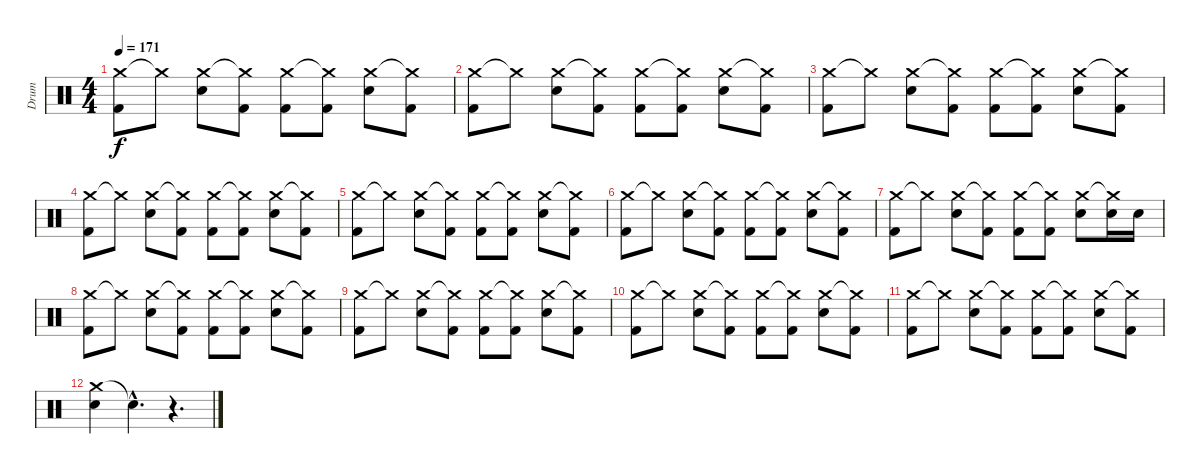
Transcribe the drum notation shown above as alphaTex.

\track ("Drum" "Drum") {instrument percussion}
\staff {score}
\articulation defaults
\ts (4 4)
\tempo 171
\clef neutral
\ks c
("Crash medium (hit)" "Kick (hit) 2").8{dy f} "Crash medium (hit)"{t}.8 ("Crash medium (hit)" "Electric Snare (hit)").8 ("Crash medium (hit)"{t} "Kick (hit) 2").8 ("Crash medium (hit)" "Kick (hit) 2").8 ("Crash medium (hit)"{t} "Kick (hit) 2").8 ("Crash medium (hit)" "Electric Snare (hit)").8 ("Crash medium (hit)"{t} "Kick (hit) 2").8 |
("Crash medium (hit)" "Kick (hit) 2").8 "Crash medium (hit)"{t}.8 ("Crash medium (hit)" "Electric Snare (hit)").8 ("Crash medium (hit)"{t} "Kick (hit) 2").8 ("Crash medium (hit)" "Kick (hit) 2").8 ("Crash medium (hit)"{t} "Kick (hit) 2").8 ("Crash medium (hit)" "Electric Snare (hit)").8 ("Crash medium (hit)"{t} "Kick (hit) 2").8 |
("Crash medium (hit)" "Kick (hit) 2").8 "Crash medium (hit)"{t}.8 ("Crash medium (hit)" "Electric Snare (hit)").8 ("Crash medium (hit)"{t} "Kick (hit) 2").8 ("Crash medium (hit)" "Kick (hit) 2").8 ("Crash medium (hit)"{t} "Kick (hit) 2").8 ("Crash medium (hit)" "Electric Snare (hit)").8 ("Crash medium (hit)"{t} "Kick (hit) 2").8 |
("Crash medium (hit)" "Kick (hit) 2").8 "Crash medium (hit)"{t}.8 ("Crash medium (hit)" "Electric Snare (hit)").8 ("Crash medium (hit)"{t} "Kick (hit) 2").8 ("Crash medium (hit)" "Kick (hit) 2").8 ("Crash medium (hit)"{t} "Kick (hit) 2").8 ("Crash medium (hit)" "Electric Snare (hit)").8 ("Crash medium (hit)"{t} "Kick (hit) 2").8 |
("Crash medium (hit)" "Kick (hit) 2").8 "Crash medium (hit)"{t}.8 ("Crash medium (hit)" "Electric Snare (hit)").8 ("Crash medium (hit)"{t} "Kick (hit) 2").8 ("Crash medium (hit)" "Kick (hit) 2").8 ("Crash medium (hit)"{t} "Kick (hit) 2").8 ("Crash medium (hit)" "Electric Snare (hit)").8 ("Crash medium (hit)"{t} "Kick (hit) 2").8 |
("Crash medium (hit)" "Kick (hit) 2").8 "Crash medium (hit)"{t}.8 ("Crash medium (hit)" "Electric Snare (hit)").8 ("Crash medium (hit)"{t} "Kick (hit) 2").8 ("Crash medium (hit)" "Kick (hit) 2").8 ("Crash medium (hit)"{t} "Kick (hit) 2").8 ("Crash medium (hit)" "Electric Snare (hit)").8 ("Crash medium (hit)"{t} "Kick (hit) 2").8 |
("Crash medium (hit)" "Kick (hit) 2").8 "Crash medium (hit)"{t}.8 ("Crash medium (hit)" "Electric Snare (hit)").8 ("Crash medium (hit)"{t} "Kick (hit) 2").8 ("Crash medium (hit)" "Kick (hit) 2").8 ("Crash medium (hit)"{t} "Kick (hit) 2").8 ("Crash medium (hit)" "Electric Snare (hit)").8 ("Crash medium (hit)"{t} "Electric Snare (hit)").16 "Electric Snare (hit)".16 |
("Crash medium (hit)" "Kick (hit) 2").8 "Crash medium (hit)"{t}.8 ("Crash medium (hit)" "Electric Snare (hit)").8 ("Crash medium (hit)"{t} "Kick (hit) 2").8 ("Crash medium (hit)" "Kick (hit) 2").8 ("Crash medium (hit)"{t} "Kick (hit) 2").8 ("Crash medium (hit)" "Electric Snare (hit)").8 ("Crash medium (hit)"{t} "Kick (hit) 2").8 |
("Crash medium (hit)" "Kick (hit) 2").8 "Crash medium (hit)"{t}.8 ("Crash medium (hit)" "Electric Snare (hit)").8 ("Crash medium (hit)"{t} "Kick (hit) 2").8 ("Crash medium (hit)" "Kick (hit) 2").8 ("Crash medium (hit)"{t} "Kick (hit) 2").8 ("Crash medium (hit)" "Electric Snare (hit)").8 ("Crash medium (hit)"{t} "Kick (hit) 2").8 |
("Crash medium (hit)" "Kick (hit) 2").8 "Crash medium (hit)"{t}.8 ("Crash medium (hit)" "Electric Snare (hit)").8 ("Crash medium (hit)"{t} "Kick (hit) 2").8 ("Crash medium (hit)" "Kick (hit) 2").8 ("Crash medium (hit)"{t} "Kick (hit) 2").8 ("Crash medium (hit)" "Electric Snare (hit)").8 ("Crash medium (hit)"{t} "Kick (hit) 2").8 |
("Crash medium (hit)" "Kick (hit) 2").8 "Crash medium (hit)"{t}.8 ("Crash medium (hit)" "Electric Snare (hit)").8 ("Crash medium (hit)"{t} "Kick (hit) 2").8 ("Crash medium (hit)" "Kick (hit) 2").8 ("Crash medium (hit)"{t} "Kick (hit) 2").8 ("Crash medium (hit)" "Electric Snare (hit)").8 ("Crash medium (hit)"{t} "Kick (hit) 2").8 |
("Crash medium (hit)" "Electric Snare (hit)").4 "Snare (hit)"{hac t}.4{d} r.4{d}
